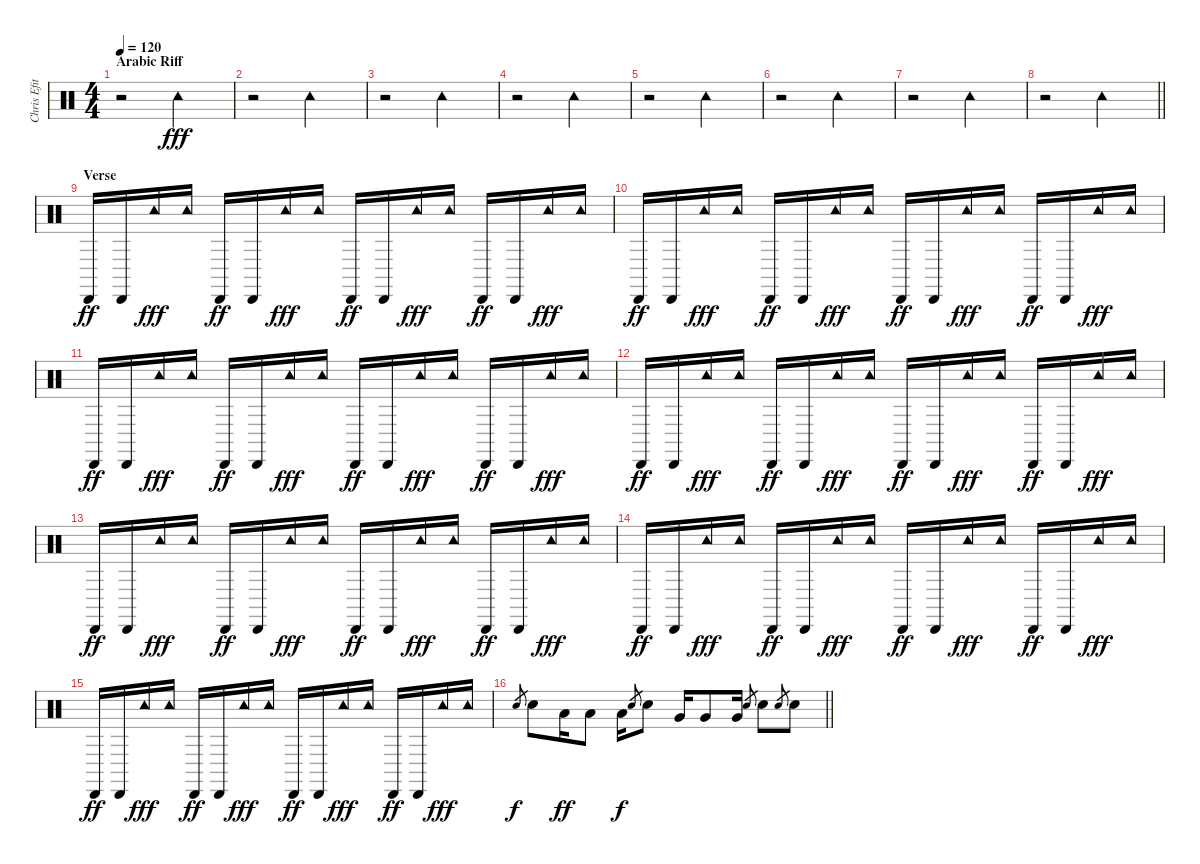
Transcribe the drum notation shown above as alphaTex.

\track ("Chris Efithimiadis (drums)" "Chris Efit") {instrument percussion}
\staff {score}
\articulation defaults
\ts (4 4)
\section ("" "Arabic Riff")
\tempo 120
\clef neutral
\ks c
r.2{dy fff} "Tambourine (hit)".2 |
r.2 "Tambourine (hit)".2 |
r.2 "Tambourine (hit)".2 |
r.2 "Tambourine (hit)".2 |
r.2 "Tambourine (hit)".2 |
r.2 "Tambourine (hit)".2 |
r.2 "Tambourine (hit)".2 |
\barLineRight lightlight
r.2 "Tambourine (hit)".2 |
\section ("" "Verse")
"Cabasa (hit)".16{dy ff} "Cabasa (hit)".16 "Tambourine (hit)".16{dy fff} "Tambourine (hit)".16 "Cabasa (hit)".16{dy ff} "Cabasa (hit)".16 "Tambourine (hit)".16{dy fff} "Tambourine (hit)".16 "Cabasa (hit)".16{dy ff} "Cabasa (hit)".16 "Tambourine (hit)".16{dy fff} "Tambourine (hit)".16 "Cabasa (hit)".16{dy ff} "Cabasa (hit)".16 "Tambourine (hit)".16{dy fff} "Tambourine (hit)".16 |
"Cabasa (hit)".16{dy ff} "Cabasa (hit)".16 "Tambourine (hit)".16{dy fff} "Tambourine (hit)".16 "Cabasa (hit)".16{dy ff} "Cabasa (hit)".16 "Tambourine (hit)".16{dy fff} "Tambourine (hit)".16 "Cabasa (hit)".16{dy ff} "Cabasa (hit)".16 "Tambourine (hit)".16{dy fff} "Tambourine (hit)".16 "Cabasa (hit)".16{dy ff} "Cabasa (hit)".16 "Tambourine (hit)".16{dy fff} "Tambourine (hit)".16 |
"Cabasa (hit)".16{dy ff} "Cabasa (hit)".16 "Tambourine (hit)".16{dy fff} "Tambourine (hit)".16 "Cabasa (hit)".16{dy ff} "Cabasa (hit)".16 "Tambourine (hit)".16{dy fff} "Tambourine (hit)".16 "Cabasa (hit)".16{dy ff} "Cabasa (hit)".16 "Tambourine (hit)".16{dy fff} "Tambourine (hit)".16 "Cabasa (hit)".16{dy ff} "Cabasa (hit)".16 "Tambourine (hit)".16{dy fff} "Tambourine (hit)".16 |
"Cabasa (hit)".16{dy ff} "Cabasa (hit)".16 "Tambourine (hit)".16{dy fff} "Tambourine (hit)".16 "Cabasa (hit)".16{dy ff} "Cabasa (hit)".16 "Tambourine (hit)".16{dy fff} "Tambourine (hit)".16 "Cabasa (hit)".16{dy ff} "Cabasa (hit)".16 "Tambourine (hit)".16{dy fff} "Tambourine (hit)".16 "Cabasa (hit)".16{dy ff} "Cabasa (hit)".16 "Tambourine (hit)".16{dy fff} "Tambourine (hit)".16 |
"Cabasa (hit)".16{dy ff} "Cabasa (hit)".16 "Tambourine (hit)".16{dy fff} "Tambourine (hit)".16 "Cabasa (hit)".16{dy ff} "Cabasa (hit)".16 "Tambourine (hit)".16{dy fff} "Tambourine (hit)".16 "Cabasa (hit)".16{dy ff} "Cabasa (hit)".16 "Tambourine (hit)".16{dy fff} "Tambourine (hit)".16 "Cabasa (hit)".16{dy ff} "Cabasa (hit)".16 "Tambourine (hit)".16{dy fff} "Tambourine (hit)".16 |
"Cabasa (hit)".16{dy ff} "Cabasa (hit)".16 "Tambourine (hit)".16{dy fff} "Tambourine (hit)".16 "Cabasa (hit)".16{dy ff} "Cabasa (hit)".16 "Tambourine (hit)".16{dy fff} "Tambourine (hit)".16 "Cabasa (hit)".16{dy ff} "Cabasa (hit)".16 "Tambourine (hit)".16{dy fff} "Tambourine (hit)".16 "Cabasa (hit)".16{dy ff} "Cabasa (hit)".16 "Tambourine (hit)".16{dy fff} "Tambourine (hit)".16 |
"Cabasa (hit)".16{dy ff} "Cabasa (hit)".16 "Tambourine (hit)".16{dy fff} "Tambourine (hit)".16 "Cabasa (hit)".16{dy ff} "Cabasa (hit)".16 "Tambourine (hit)".16{dy fff} "Tambourine (hit)".16 "Cabasa (hit)".16{dy ff} "Cabasa (hit)".16 "Tambourine (hit)".16{dy fff} "Tambourine (hit)".16 "Cabasa (hit)".16{dy ff} "Cabasa (hit)".16 "Tambourine (hit)".16{dy fff} "Tambourine (hit)".16 |
\barLineRight lightlight "Snare (hit) 2".8{gr dy f} "Snare (hit) 2".8 "Low Tom (hit)".16{dy ff} "Low Tom (hit)".8 "Low Tom (hit)".16{dy f} "Snare (hit) 2".8{gr} "Snare (hit) 2".8 "Very Low Tom (hit)".16 "Very Low Tom (hit)".8 "Very Low Tom (hit)".16 "Snare (hit) 2".8{gr} "Snare (hit) 2".8 "Snare (hit) 2".8{gr} "Snare (hit) 2".8
